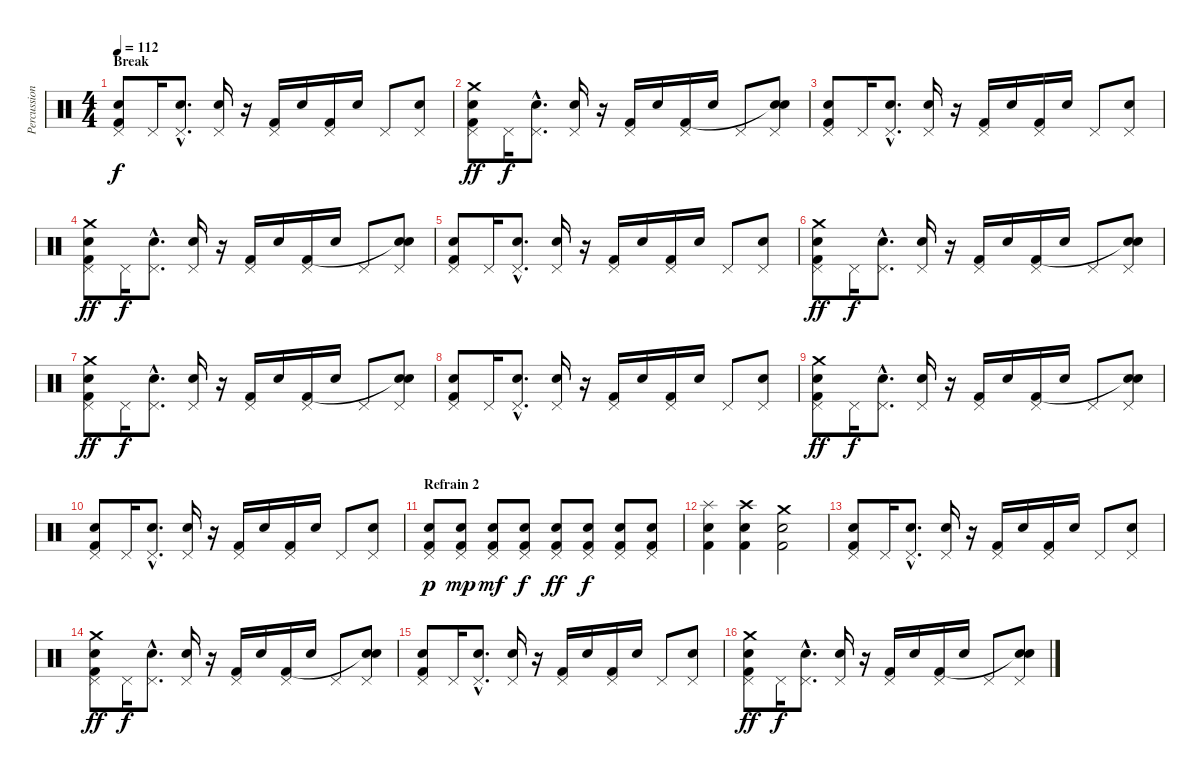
\track ("Percussions" "Percussion") {instrument percussion}
\staff {score}
\articulation defaults
\ts (4 4)
\section ("" "Break")
\tempo 112
\clef neutral
\ks c
("Pedal Hi-Hat (hit)" "Kick (hit) 2" "Electric Snare (hit)").8{dy f} "Pedal Hi-Hat (hit)".16 ("Pedal Hi-Hat (hit)"{hac} "Electric Snare (hit)"{hac}).8{d} ("Pedal Hi-Hat (hit)" "Electric Snare (hit)").16 r.16 ("Pedal Hi-Hat (hit)" "Kick (hit) 2").16 "Electric Snare (hit)".16 ("Pedal Hi-Hat (hit)" "Kick (hit) 2").16 "Electric Snare (hit)".16 "Pedal Hi-Hat (hit)".8 ("Pedal Hi-Hat (hit)" "Electric Snare (hit)").8 |
("Pedal Hi-Hat (hit)" "Crash medium (hit)" "Kick (hit) 2" "Electric Snare (hit)").8{dy ff} "Pedal Hi-Hat (hit)".16{dy f} ("Pedal Hi-Hat (hit)"{hac} "Electric Snare (hit)"{hac}).8{d} ("Pedal Hi-Hat (hit)" "Electric Snare (hit)").16 r.16 ("Pedal Hi-Hat (hit)" "Kick (hit) 2").16 "Electric Snare (hit)".16 ("Pedal Hi-Hat (hit)" "Kick (hit) 2").16 "Electric Snare (hit)".16 "Pedal Hi-Hat (hit)".8 ("Pedal Hi-Hat (hit)" "Snare (hit)"{t} "Electric Snare (hit)").8 |
("Pedal Hi-Hat (hit)" "Kick (hit) 2" "Electric Snare (hit)").8 "Pedal Hi-Hat (hit)".16 ("Pedal Hi-Hat (hit)"{hac} "Electric Snare (hit)"{hac}).8{d} ("Pedal Hi-Hat (hit)" "Electric Snare (hit)").16 r.16 ("Pedal Hi-Hat (hit)" "Kick (hit) 2").16 "Electric Snare (hit)".16 ("Pedal Hi-Hat (hit)" "Kick (hit) 2").16 "Electric Snare (hit)".16 "Pedal Hi-Hat (hit)".8 ("Pedal Hi-Hat (hit)" "Electric Snare (hit)").8 |
("Pedal Hi-Hat (hit)" "Crash medium (hit)" "Kick (hit) 2" "Electric Snare (hit)").8{dy ff} "Pedal Hi-Hat (hit)".16{dy f} ("Pedal Hi-Hat (hit)"{hac} "Electric Snare (hit)"{hac}).8{d} ("Pedal Hi-Hat (hit)" "Electric Snare (hit)").16 r.16 ("Pedal Hi-Hat (hit)" "Kick (hit) 2").16 "Electric Snare (hit)".16 ("Pedal Hi-Hat (hit)" "Kick (hit) 2").16 "Electric Snare (hit)".16 "Pedal Hi-Hat (hit)".8 ("Pedal Hi-Hat (hit)" "Snare (hit)"{t} "Electric Snare (hit)").8 |
("Pedal Hi-Hat (hit)" "Kick (hit) 2" "Electric Snare (hit)").8 "Pedal Hi-Hat (hit)".16 ("Pedal Hi-Hat (hit)"{hac} "Electric Snare (hit)"{hac}).8{d} ("Pedal Hi-Hat (hit)" "Electric Snare (hit)").16 r.16 ("Pedal Hi-Hat (hit)" "Kick (hit) 2").16 "Electric Snare (hit)".16 ("Pedal Hi-Hat (hit)" "Kick (hit) 2").16 "Electric Snare (hit)".16 "Pedal Hi-Hat (hit)".8 ("Pedal Hi-Hat (hit)" "Electric Snare (hit)").8 |
("Pedal Hi-Hat (hit)" "Crash medium (hit)" "Kick (hit) 2" "Electric Snare (hit)").8{dy ff} "Pedal Hi-Hat (hit)".16{dy f} ("Pedal Hi-Hat (hit)"{hac} "Electric Snare (hit)"{hac}).8{d} ("Pedal Hi-Hat (hit)" "Electric Snare (hit)").16 r.16 ("Pedal Hi-Hat (hit)" "Kick (hit) 2").16 "Electric Snare (hit)".16 ("Pedal Hi-Hat (hit)" "Kick (hit) 2").16 "Electric Snare (hit)".16 "Pedal Hi-Hat (hit)".8 ("Pedal Hi-Hat (hit)" "Snare (hit)"{t} "Electric Snare (hit)").8 |
("Pedal Hi-Hat (hit)" "Crash medium (hit)" "Kick (hit) 2" "Electric Snare (hit)").8{dy ff} "Pedal Hi-Hat (hit)".16{dy f} ("Pedal Hi-Hat (hit)"{hac} "Electric Snare (hit)"{hac}).8{d} ("Pedal Hi-Hat (hit)" "Electric Snare (hit)").16 r.16 ("Pedal Hi-Hat (hit)" "Kick (hit) 2").16 "Electric Snare (hit)".16 ("Pedal Hi-Hat (hit)" "Kick (hit) 2").16 "Electric Snare (hit)".16 "Pedal Hi-Hat (hit)".8 ("Pedal Hi-Hat (hit)" "Snare (hit)"{t} "Electric Snare (hit)").8 |
("Pedal Hi-Hat (hit)" "Kick (hit) 2" "Electric Snare (hit)").8 "Pedal Hi-Hat (hit)".16 ("Pedal Hi-Hat (hit)"{hac} "Electric Snare (hit)"{hac}).8{d} ("Pedal Hi-Hat (hit)" "Electric Snare (hit)").16 r.16 ("Pedal Hi-Hat (hit)" "Kick (hit) 2").16 "Electric Snare (hit)".16 ("Pedal Hi-Hat (hit)" "Kick (hit) 2").16 "Electric Snare (hit)".16 "Pedal Hi-Hat (hit)".8 ("Pedal Hi-Hat (hit)" "Electric Snare (hit)").8 |
("Pedal Hi-Hat (hit)" "Crash medium (hit)" "Kick (hit) 2" "Electric Snare (hit)").8{dy ff} "Pedal Hi-Hat (hit)".16{dy f} ("Pedal Hi-Hat (hit)"{hac} "Electric Snare (hit)"{hac}).8{d} ("Pedal Hi-Hat (hit)" "Electric Snare (hit)").16 r.16 ("Pedal Hi-Hat (hit)" "Kick (hit) 2").16 "Electric Snare (hit)".16 ("Pedal Hi-Hat (hit)" "Kick (hit) 2").16 "Electric Snare (hit)".16 "Pedal Hi-Hat (hit)".8 ("Pedal Hi-Hat (hit)" "Snare (hit)"{t} "Electric Snare (hit)").8 |
("Pedal Hi-Hat (hit)" "Kick (hit) 2" "Electric Snare (hit)").8 "Pedal Hi-Hat (hit)".16 ("Pedal Hi-Hat (hit)"{hac} "Electric Snare (hit)"{hac}).8{d} ("Pedal Hi-Hat (hit)" "Electric Snare (hit)").16 r.16 ("Pedal Hi-Hat (hit)" "Kick (hit) 2").16 "Electric Snare (hit)".16 ("Pedal Hi-Hat (hit)" "Kick (hit) 2").16 "Electric Snare (hit)".16 "Pedal Hi-Hat (hit)".8 ("Pedal Hi-Hat (hit)" "Electric Snare (hit)").8 |
\section ("" "Refrain 2")
("Pedal Hi-Hat (hit)" "Electric Snare (hit)" "Kick (hit) 2").8{dy p} ("Pedal Hi-Hat (hit)" "Electric Snare (hit)" "Kick (hit) 2").8{dy mp} ("Pedal Hi-Hat (hit)" "Electric Snare (hit)" "Kick (hit) 2").8{dy mf} ("Pedal Hi-Hat (hit)" "Electric Snare (hit)" "Kick (hit) 2").8{dy f} ("Pedal Hi-Hat (hit)" "Electric Snare (hit)" "Kick (hit) 2").8{dy ff} ("Pedal Hi-Hat (hit)" "Electric Snare (hit)" "Kick (hit) 2").8{dy f} ("Pedal Hi-Hat (hit)" "Electric Snare (hit)" "Kick (hit) 2").8 ("Pedal Hi-Hat (hit)" "Electric Snare (hit)" "Kick (hit) 2").8 |
("Splash (hit)" "Electric Snare (hit)" "Kick (hit) 2").4 ("Crash high (hit)" "Electric Snare (hit)" "Kick (hit) 2").4 ("Crash medium (hit)" "Electric Snare (hit)" "Kick (hit) 2").2 |
("Pedal Hi-Hat (hit)" "Kick (hit) 2" "Electric Snare (hit)").8 "Pedal Hi-Hat (hit)".16 ("Pedal Hi-Hat (hit)"{hac} "Electric Snare (hit)"{hac}).8{d} ("Pedal Hi-Hat (hit)" "Electric Snare (hit)").16 r.16 ("Pedal Hi-Hat (hit)" "Kick (hit) 2").16 "Electric Snare (hit)".16 ("Pedal Hi-Hat (hit)" "Kick (hit) 2").16 "Electric Snare (hit)".16 "Pedal Hi-Hat (hit)".8 ("Pedal Hi-Hat (hit)" "Electric Snare (hit)").8 |
("Pedal Hi-Hat (hit)" "Crash medium (hit)" "Kick (hit) 2" "Electric Snare (hit)").8{dy ff} "Pedal Hi-Hat (hit)".16{dy f} ("Pedal Hi-Hat (hit)"{hac} "Electric Snare (hit)"{hac}).8{d} ("Pedal Hi-Hat (hit)" "Electric Snare (hit)").16 r.16 ("Pedal Hi-Hat (hit)" "Kick (hit) 2").16 "Electric Snare (hit)".16 ("Pedal Hi-Hat (hit)" "Kick (hit) 2").16 "Electric Snare (hit)".16 "Pedal Hi-Hat (hit)".8 ("Pedal Hi-Hat (hit)" "Snare (hit)"{t} "Electric Snare (hit)").8 |
("Pedal Hi-Hat (hit)" "Kick (hit) 2" "Electric Snare (hit)").8 "Pedal Hi-Hat (hit)".16 ("Pedal Hi-Hat (hit)"{hac} "Electric Snare (hit)"{hac}).8{d} ("Pedal Hi-Hat (hit)" "Electric Snare (hit)").16 r.16 ("Pedal Hi-Hat (hit)" "Kick (hit) 2").16 "Electric Snare (hit)".16 ("Pedal Hi-Hat (hit)" "Kick (hit) 2").16 "Electric Snare (hit)".16 "Pedal Hi-Hat (hit)".8 ("Pedal Hi-Hat (hit)" "Electric Snare (hit)").8 |
("Pedal Hi-Hat (hit)" "Crash medium (hit)" "Kick (hit) 2" "Electric Snare (hit)").8{dy ff} "Pedal Hi-Hat (hit)".16{dy f} ("Pedal Hi-Hat (hit)"{hac} "Electric Snare (hit)"{hac}).8{d} ("Pedal Hi-Hat (hit)" "Electric Snare (hit)").16 r.16 ("Pedal Hi-Hat (hit)" "Kick (hit) 2").16 "Electric Snare (hit)".16 ("Pedal Hi-Hat (hit)" "Kick (hit) 2").16 "Electric Snare (hit)".16 "Pedal Hi-Hat (hit)".8 ("Pedal Hi-Hat (hit)" "Snare (hit)"{t} "Electric Snare (hit)").8
